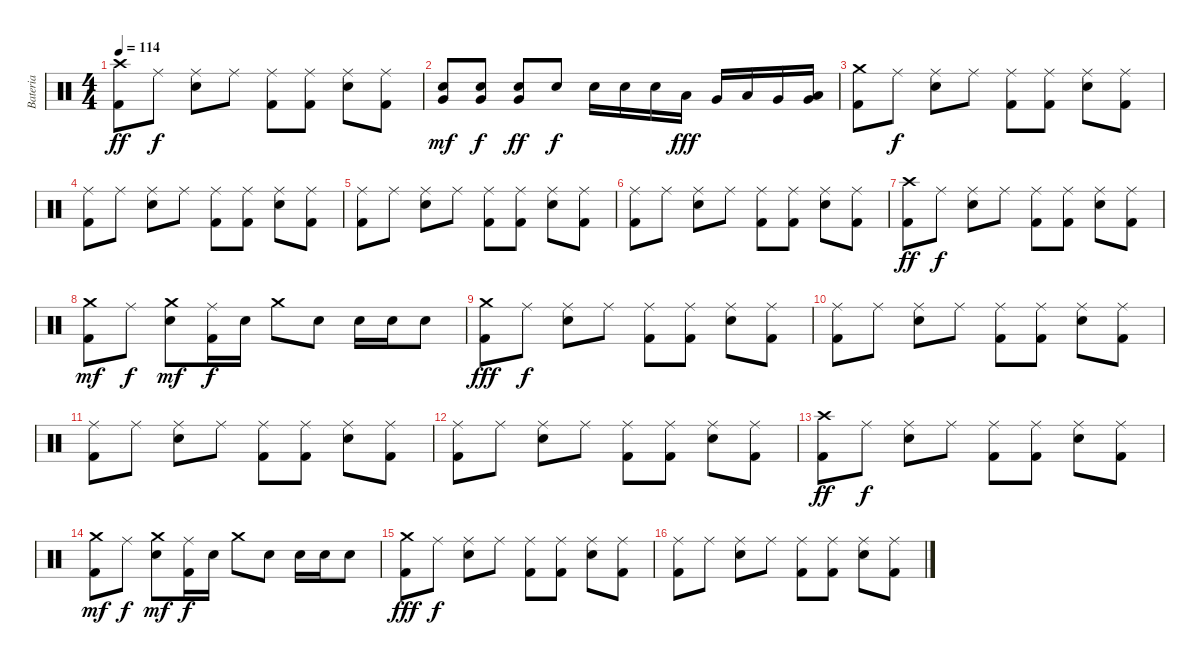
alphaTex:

\track ("Bateria" "Bateria") {instrument percussion}
\staff {score}
\articulation defaults
\ts (4 4)
\tempo 114
\clef neutral
\ks c
("Crash high (hit)" "Kick (hit) 2").8{dy ff} "Ride (middle)".8{dy f} ("Ride (middle)" "Electric Snare (hit)").8 "Ride (middle)".8 ("Ride (middle)" "Kick (hit) 2").8 ("Ride (middle)" "Kick (hit) 2").8 ("Ride (middle)" "Electric Snare (hit)").8 ("Ride (middle)" "Kick (hit) 2").8 |
("Electric Snare (hit)" "Very Low Tom (hit)").8{dy mf} ("Electric Snare (hit)" "Very Low Tom (hit)").8{dy f} ("Electric Snare (hit)" "Very Low Tom (hit)").8{dy ff} "Electric Snare (hit)".8{dy f} "Electric Snare (hit)".16 "Electric Snare (hit)".16 "Electric Snare (hit)".16 "Low Tom (hit)".16{dy fff} "Very Low Tom (hit)".16 "Low Tom (hit)".16 "Very Low Tom (hit)".16 ("Low Tom (hit)" "Very Low Tom (hit)").16 |
("Crash medium (hit)" "Kick (hit) 2").8 "Ride (middle)".8{dy f} ("Ride (middle)" "Electric Snare (hit)").8 "Ride (middle)".8 ("Ride (middle)" "Kick (hit) 2").8 ("Ride (middle)" "Kick (hit) 2").8 ("Ride (middle)" "Electric Snare (hit)").8 ("Ride (middle)" "Kick (hit) 2").8 |
("Ride (middle)" "Kick (hit) 2").8 "Ride (middle)".8 ("Ride (middle)" "Electric Snare (hit)").8 "Ride (middle)".8 ("Ride (middle)" "Kick (hit) 2").8 ("Ride (middle)" "Kick (hit) 2").8 ("Ride (middle)" "Electric Snare (hit)").8 ("Ride (middle)" "Kick (hit) 2").8 |
("Ride (middle)" "Kick (hit) 2").8 "Ride (middle)".8 ("Ride (middle)" "Electric Snare (hit)").8 "Ride (middle)".8 ("Ride (middle)" "Kick (hit) 2").8 ("Ride (middle)" "Kick (hit) 2").8 ("Ride (middle)" "Electric Snare (hit)").8 ("Ride (middle)" "Kick (hit) 2").8 |
("Ride (middle)" "Kick (hit) 2").8 "Ride (middle)".8 ("Ride (middle)" "Electric Snare (hit)").8 "Ride (middle)".8 ("Ride (middle)" "Kick (hit) 2").8 ("Ride (middle)" "Kick (hit) 2").8 ("Ride (middle)" "Electric Snare (hit)").8 ("Ride (middle)" "Kick (hit) 2").8 |
("Crash high (hit)" "Kick (hit) 2").8{dy ff} "Ride (middle)".8{dy f} ("Ride (middle)" "Electric Snare (hit)").8 "Ride (middle)".8 ("Ride (middle)" "Kick (hit) 2").8 ("Ride (middle)" "Kick (hit) 2").8 ("Ride (middle)" "Electric Snare (hit)").8 ("Ride (middle)" "Kick (hit) 2").8 |
("Crash medium (hit)" "Kick (hit) 2").8{dy mf} "Ride (middle)".8{dy f} ("Crash medium (hit)" "Electric Snare (hit)").8{dy mf} ("Ride (middle)" "Kick (hit) 2").16{dy f} "Electric Snare (hit)".16 "Crash medium (hit)".8 "Electric Snare (hit)".8 "Electric Snare (hit)".16 "Electric Snare (hit)".16 "Electric Snare (hit)".8 |
("Crash medium (hit)" "Kick (hit) 2").8{dy fff} "Ride (middle)".8{dy f} ("Ride (middle)" "Electric Snare (hit)").8 "Ride (middle)".8 ("Ride (middle)" "Kick (hit) 2").8 ("Ride (middle)" "Kick (hit) 2").8 ("Ride (middle)" "Electric Snare (hit)").8 ("Ride (middle)" "Kick (hit) 2").8 |
("Ride (middle)" "Kick (hit) 2").8 "Ride (middle)".8 ("Ride (middle)" "Electric Snare (hit)").8 "Ride (middle)".8 ("Ride (middle)" "Kick (hit) 2").8 ("Ride (middle)" "Kick (hit) 2").8 ("Ride (middle)" "Electric Snare (hit)").8 ("Ride (middle)" "Kick (hit) 2").8 |
("Ride (middle)" "Kick (hit) 2").8 "Ride (middle)".8 ("Ride (middle)" "Electric Snare (hit)").8 "Ride (middle)".8 ("Ride (middle)" "Kick (hit) 2").8 ("Ride (middle)" "Kick (hit) 2").8 ("Ride (middle)" "Electric Snare (hit)").8 ("Ride (middle)" "Kick (hit) 2").8 |
("Ride (middle)" "Kick (hit) 2").8 "Ride (middle)".8 ("Ride (middle)" "Electric Snare (hit)").8 "Ride (middle)".8 ("Ride (middle)" "Kick (hit) 2").8 ("Ride (middle)" "Kick (hit) 2").8 ("Ride (middle)" "Electric Snare (hit)").8 ("Ride (middle)" "Kick (hit) 2").8 |
("Crash high (hit)" "Kick (hit) 2").8{dy ff} "Ride (middle)".8{dy f} ("Ride (middle)" "Electric Snare (hit)").8 "Ride (middle)".8 ("Ride (middle)" "Kick (hit) 2").8 ("Ride (middle)" "Kick (hit) 2").8 ("Ride (middle)" "Electric Snare (hit)").8 ("Ride (middle)" "Kick (hit) 2").8 |
("Crash medium (hit)" "Kick (hit) 2").8{dy mf} "Ride (middle)".8{dy f} ("Crash medium (hit)" "Electric Snare (hit)").8{dy mf} ("Ride (middle)" "Kick (hit) 2").16{dy f} "Electric Snare (hit)".16 "Crash medium (hit)".8 "Electric Snare (hit)".8 "Electric Snare (hit)".16 "Electric Snare (hit)".16 "Electric Snare (hit)".8 |
("Crash medium (hit)" "Kick (hit) 2").8{dy fff} "Ride (middle)".8{dy f} ("Ride (middle)" "Electric Snare (hit)").8 "Ride (middle)".8 ("Ride (middle)" "Kick (hit) 2").8 ("Ride (middle)" "Kick (hit) 2").8 ("Ride (middle)" "Electric Snare (hit)").8 ("Ride (middle)" "Kick (hit) 2").8 |
("Ride (middle)" "Kick (hit) 2").8 "Ride (middle)".8 ("Ride (middle)" "Electric Snare (hit)").8 "Ride (middle)".8 ("Ride (middle)" "Kick (hit) 2").8 ("Ride (middle)" "Kick (hit) 2").8 ("Ride (middle)" "Electric Snare (hit)").8 ("Ride (middle)" "Kick (hit) 2").8
